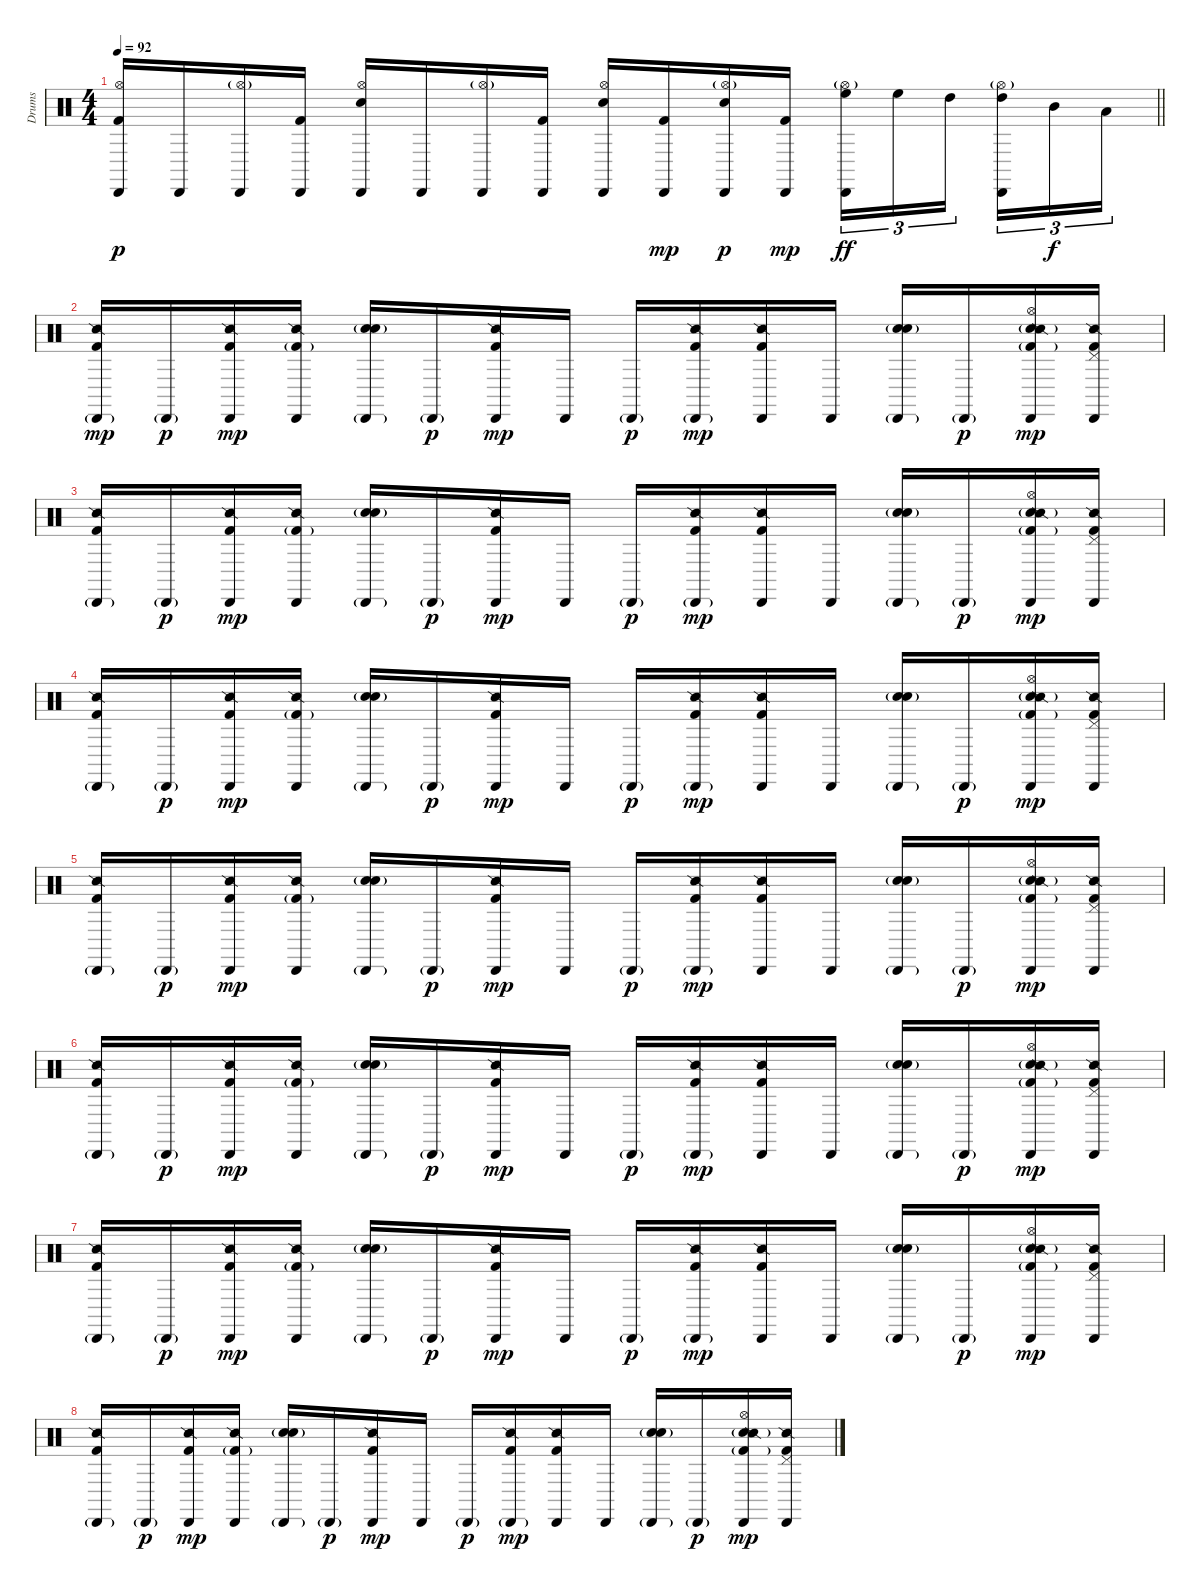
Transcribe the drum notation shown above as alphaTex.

\track ("Drums" "Drums") {instrument percussion}
\staff {score}
\articulation defaults
\ts (4 4)
\tempo 92
\clef neutral
\barLineRight lightlight
\ks c
("Hi-Hat (open)" "Cabasa (hit)" "Kick (hit) 2").16{dy p} "Cabasa (hit)".16 ("Hi-Hat (open)"{g} "Cabasa (hit)").16 ("Cabasa (hit)" "Kick (hit) 2").16 ("Hi-Hat (open)" "Cabasa (hit)" "Electric Snare (hit)").16 "Cabasa (hit)".16 ("Hi-Hat (open)"{g} "Cabasa (hit)").16 ("Cabasa (hit)" "Kick (hit) 2").16 ("Hi-Hat (open)" "Cabasa (hit)" "Electric Snare (hit)").16 ("Cabasa (hit)" "Kick (hit) 2").16{dy mp} ("Hi-Hat (open)"{g} "Cabasa (hit)" "Electric Snare (hit)").16{dy p} ("Cabasa (hit)" "Kick (hit) 2").16{dy mp} ("Hi-Hat (open)"{g} "Cabasa (hit)" "High Floor Tom (hit)").16{tu (3 2) dy ff} "High Floor Tom (hit)".16{tu (3 2)} "High Tom (hit)".16{tu (3 2)} ("Hi-Hat (open)"{g} "Cabasa (hit)" "High Tom (hit)").16{tu (3 2)} "Mid Tom (hit)".16{tu (3 2) dy f} "Low Tom (hit)".16{tu (3 2)} |
("Cabasa (hit)"{g} "Kick (hit) 2" "Snare (side stick) 2").16{dy mp} "Cabasa (hit)"{g}.16{dy p} ("Cabasa (hit)" "Kick (hit) 2" "Snare (side stick) 2").16{dy mp} ("Cabasa (hit)" "Kick (hit) 2"{g} "Snare (side stick) 2").16 ("Cabasa (hit)"{g} "Hand Clap (hit)"{g} "Electric Snare (hit)").16 "Cabasa (hit)"{g}.16{dy p} ("Cabasa (hit)" "Kick (hit) 2" "Snare (side stick) 2").16{dy mp} "Cabasa (hit)".16 "Cabasa (hit)"{g}.16{dy p} ("Cabasa (hit)"{g} "Kick (hit) 2" "Snare (side stick) 2").16{dy mp} ("Cabasa (hit)" "Kick (hit) 2" "Snare (side stick) 2").16 "Cabasa (hit)".16 ("Cabasa (hit)"{g} "Hand Clap (hit)"{g} "Electric Snare (hit)").16 "Cabasa (hit)"{g}.16{dy p} ("Cabasa (hit)" "Hi-Hat (open)" "Hand Clap (hit)"{g} "Kick (hit) 2"{g} "Snare (side stick) 2").16{dy mp} ("Cabasa (hit)" "Pedal Hi-Hat (hit)" "Kick (hit) 2" "Snare (side stick) 2").16 |
("Cabasa (hit)"{g} "Kick (hit) 2" "Snare (side stick) 2").16 "Cabasa (hit)"{g}.16{dy p} ("Cabasa (hit)" "Kick (hit) 2" "Snare (side stick) 2").16{dy mp} ("Cabasa (hit)" "Kick (hit) 2"{g} "Snare (side stick) 2").16 ("Cabasa (hit)"{g} "Hand Clap (hit)"{g} "Electric Snare (hit)").16 "Cabasa (hit)"{g}.16{dy p} ("Cabasa (hit)" "Kick (hit) 2" "Snare (side stick) 2").16{dy mp} "Cabasa (hit)".16 "Cabasa (hit)"{g}.16{dy p} ("Cabasa (hit)"{g} "Kick (hit) 2" "Snare (side stick) 2").16{dy mp} ("Cabasa (hit)" "Kick (hit) 2" "Snare (side stick) 2").16 "Cabasa (hit)".16 ("Cabasa (hit)"{g} "Hand Clap (hit)"{g} "Electric Snare (hit)").16 "Cabasa (hit)"{g}.16{dy p} ("Cabasa (hit)" "Hi-Hat (open)" "Hand Clap (hit)"{g} "Kick (hit) 2"{g} "Snare (side stick) 2").16{dy mp} ("Cabasa (hit)" "Pedal Hi-Hat (hit)" "Kick (hit) 2" "Snare (side stick) 2").16 |
("Cabasa (hit)"{g} "Kick (hit) 2" "Snare (side stick) 2").16 "Cabasa (hit)"{g}.16{dy p} ("Cabasa (hit)" "Kick (hit) 2" "Snare (side stick) 2").16{dy mp} ("Cabasa (hit)" "Kick (hit) 2"{g} "Snare (side stick) 2").16 ("Cabasa (hit)"{g} "Hand Clap (hit)"{g} "Electric Snare (hit)").16 "Cabasa (hit)"{g}.16{dy p} ("Cabasa (hit)" "Kick (hit) 2" "Snare (side stick) 2").16{dy mp} "Cabasa (hit)".16 "Cabasa (hit)"{g}.16{dy p} ("Cabasa (hit)"{g} "Kick (hit) 2" "Snare (side stick) 2").16{dy mp} ("Cabasa (hit)" "Kick (hit) 2" "Snare (side stick) 2").16 "Cabasa (hit)".16 ("Cabasa (hit)"{g} "Hand Clap (hit)"{g} "Electric Snare (hit)").16 "Cabasa (hit)"{g}.16{dy p} ("Cabasa (hit)" "Hi-Hat (open)" "Hand Clap (hit)"{g} "Kick (hit) 2"{g} "Snare (side stick) 2").16{dy mp} ("Cabasa (hit)" "Pedal Hi-Hat (hit)" "Kick (hit) 2" "Snare (side stick) 2").16 |
("Cabasa (hit)"{g} "Kick (hit) 2" "Snare (side stick) 2").16 "Cabasa (hit)"{g}.16{dy p} ("Cabasa (hit)" "Kick (hit) 2" "Snare (side stick) 2").16{dy mp} ("Cabasa (hit)" "Kick (hit) 2"{g} "Snare (side stick) 2").16 ("Cabasa (hit)"{g} "Hand Clap (hit)"{g} "Electric Snare (hit)").16 "Cabasa (hit)"{g}.16{dy p} ("Cabasa (hit)" "Kick (hit) 2" "Snare (side stick) 2").16{dy mp} "Cabasa (hit)".16 "Cabasa (hit)"{g}.16{dy p} ("Cabasa (hit)"{g} "Kick (hit) 2" "Snare (side stick) 2").16{dy mp} ("Cabasa (hit)" "Kick (hit) 2" "Snare (side stick) 2").16 "Cabasa (hit)".16 ("Cabasa (hit)"{g} "Hand Clap (hit)"{g} "Electric Snare (hit)").16 "Cabasa (hit)"{g}.16{dy p} ("Cabasa (hit)" "Hi-Hat (open)" "Hand Clap (hit)"{g} "Kick (hit) 2"{g} "Snare (side stick) 2").16{dy mp} ("Cabasa (hit)" "Pedal Hi-Hat (hit)" "Kick (hit) 2" "Snare (side stick) 2").16 |
("Cabasa (hit)"{g} "Kick (hit) 2" "Snare (side stick) 2").16 "Cabasa (hit)"{g}.16{dy p} ("Cabasa (hit)" "Kick (hit) 2" "Snare (side stick) 2").16{dy mp} ("Cabasa (hit)" "Kick (hit) 2"{g} "Snare (side stick) 2").16 ("Cabasa (hit)"{g} "Hand Clap (hit)"{g} "Electric Snare (hit)").16 "Cabasa (hit)"{g}.16{dy p} ("Cabasa (hit)" "Kick (hit) 2" "Snare (side stick) 2").16{dy mp} "Cabasa (hit)".16 "Cabasa (hit)"{g}.16{dy p} ("Cabasa (hit)"{g} "Kick (hit) 2" "Snare (side stick) 2").16{dy mp} ("Cabasa (hit)" "Kick (hit) 2" "Snare (side stick) 2").16 "Cabasa (hit)".16 ("Cabasa (hit)"{g} "Hand Clap (hit)"{g} "Electric Snare (hit)").16 "Cabasa (hit)"{g}.16{dy p} ("Cabasa (hit)" "Hi-Hat (open)" "Hand Clap (hit)"{g} "Kick (hit) 2"{g} "Snare (side stick) 2").16{dy mp} ("Cabasa (hit)" "Pedal Hi-Hat (hit)" "Kick (hit) 2" "Snare (side stick) 2").16 |
("Cabasa (hit)"{g} "Kick (hit) 2" "Snare (side stick) 2").16 "Cabasa (hit)"{g}.16{dy p} ("Cabasa (hit)" "Kick (hit) 2" "Snare (side stick) 2").16{dy mp} ("Cabasa (hit)" "Kick (hit) 2"{g} "Snare (side stick) 2").16 ("Cabasa (hit)"{g} "Hand Clap (hit)"{g} "Electric Snare (hit)").16 "Cabasa (hit)"{g}.16{dy p} ("Cabasa (hit)" "Kick (hit) 2" "Snare (side stick) 2").16{dy mp} "Cabasa (hit)".16 "Cabasa (hit)"{g}.16{dy p} ("Cabasa (hit)"{g} "Kick (hit) 2" "Snare (side stick) 2").16{dy mp} ("Cabasa (hit)" "Kick (hit) 2" "Snare (side stick) 2").16 "Cabasa (hit)".16 ("Cabasa (hit)"{g} "Hand Clap (hit)"{g} "Electric Snare (hit)").16 "Cabasa (hit)"{g}.16{dy p} ("Cabasa (hit)" "Hi-Hat (open)" "Hand Clap (hit)"{g} "Kick (hit) 2"{g} "Snare (side stick) 2").16{dy mp} ("Cabasa (hit)" "Pedal Hi-Hat (hit)" "Kick (hit) 2" "Snare (side stick) 2").16 |
("Cabasa (hit)"{g} "Kick (hit) 2" "Snare (side stick) 2").16 "Cabasa (hit)"{g}.16{dy p} ("Cabasa (hit)" "Kick (hit) 2" "Snare (side stick) 2").16{dy mp} ("Cabasa (hit)" "Kick (hit) 2"{g} "Snare (side stick) 2").16 ("Cabasa (hit)"{g} "Hand Clap (hit)"{g} "Electric Snare (hit)").16 "Cabasa (hit)"{g}.16{dy p} ("Cabasa (hit)" "Kick (hit) 2" "Snare (side stick) 2").16{dy mp} "Cabasa (hit)".16 "Cabasa (hit)"{g}.16{dy p} ("Cabasa (hit)"{g} "Kick (hit) 2" "Snare (side stick) 2").16{dy mp} ("Cabasa (hit)" "Kick (hit) 2" "Snare (side stick) 2").16 "Cabasa (hit)".16 ("Cabasa (hit)"{g} "Hand Clap (hit)"{g} "Electric Snare (hit)").16 "Cabasa (hit)"{g}.16{dy p} ("Cabasa (hit)" "Hi-Hat (open)" "Hand Clap (hit)"{g} "Kick (hit) 2"{g} "Snare (side stick) 2").16{dy mp} ("Cabasa (hit)" "Pedal Hi-Hat (hit)" "Kick (hit) 2" "Snare (side stick) 2").16
